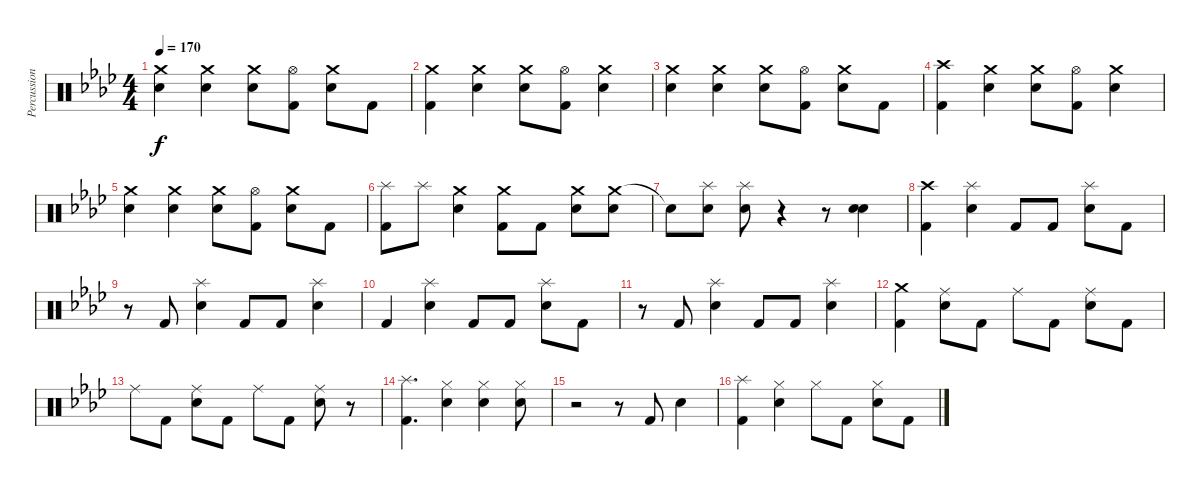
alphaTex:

\track ("Percussion" "Percussion") {instrument percussion}
\staff {score}
\articulation defaults
\ts (4 4)
\tempo 170
\clef neutral
\ks ab
("Crash medium (hit)" "Electric Snare (hit)").4{dy f} ("Crash medium (hit)" "Electric Snare (hit)").4 ("Crash medium (hit)" "Electric Snare (hit)").8 ("Hi-Hat (open)" "Kick (hit) 2").8 ("Crash medium (hit)" "Electric Snare (hit)").8 "Kick (hit) 2".8 |
("Crash medium (hit)" "Kick (hit) 2").4 ("Crash medium (hit)" "Electric Snare (hit)").4 ("Crash medium (hit)" "Electric Snare (hit)").8 ("Hi-Hat (open)" "Kick (hit) 2").8 ("Crash medium (hit)" "Electric Snare (hit)").4 |
("Crash medium (hit)" "Electric Snare (hit)").4 ("Crash medium (hit)" "Electric Snare (hit)").4 ("Crash medium (hit)" "Electric Snare (hit)").8 ("Hi-Hat (open)" "Kick (hit) 2").8 ("Crash medium (hit)" "Electric Snare (hit)").8 "Kick (hit) 2".8 |
("Crash high (hit)" "Kick (hit) 2").4 ("Crash medium (hit)" "Electric Snare (hit)").4 ("Crash medium (hit)" "Electric Snare (hit)").8 ("Hi-Hat (open)" "Kick (hit) 2").8 ("Crash medium (hit)" "Electric Snare (hit)").4 |
("Crash medium (hit)" "Electric Snare (hit)").4 ("Crash medium (hit)" "Electric Snare (hit)").4 ("Crash medium (hit)" "Electric Snare (hit)").8 ("Hi-Hat (open)" "Kick (hit) 2").8 ("Crash medium (hit)" "Electric Snare (hit)").8 "Kick (hit) 2".8 |
("Splash (hit)" "Kick (hit) 2").8 "Splash (hit)".8 ("Crash medium (hit)" "Electric Snare (hit)").4 ("Crash medium (hit)" "Kick (hit) 2").8 "Kick (hit) 2".8 ("Crash medium (hit)" "Electric Snare (hit)").8 ("Crash medium (hit)" "Electric Snare (hit)").8 |
"Snare (hit)"{t}.8 ("Splash (hit)" "Electric Snare (hit)").8 ("Splash (hit)" "Electric Snare (hit)").8 r.4 r.8 ("Electric Snare (hit)" "Electric Snare (hit)").4 |
("Crash high (hit)" "Kick (hit) 2").4 ("Splash (hit)" "Electric Snare (hit)").4 "Kick (hit) 2".8 "Kick (hit) 2".8 ("Splash (hit)" "Electric Snare (hit)").8 "Kick (hit) 2".8 |
r.8 "Kick (hit) 2".8 ("Splash (hit)" "Electric Snare (hit)").4 "Kick (hit) 2".8 "Kick (hit) 2".8 ("Splash (hit)" "Electric Snare (hit)").4 |
"Kick (hit) 2".4 ("Splash (hit)" "Electric Snare (hit)").4 "Kick (hit) 2".8 "Kick (hit) 2".8 ("Splash (hit)" "Electric Snare (hit)").8 "Kick (hit) 2".8 |
r.8 "Kick (hit) 2".8 ("Splash (hit)" "Electric Snare (hit)").4 "Kick (hit) 2".8 "Kick (hit) 2".8 ("Splash (hit)" "Electric Snare (hit)").4 |
("Crash medium (hit)" "Kick (hit) 2").4 ("Ride (middle)" "Electric Snare (hit)").8 "Kick (hit) 2".8 "Ride (middle)".8 "Kick (hit) 2".8 ("Ride (middle)" "Electric Snare (hit)").8 "Kick (hit) 2".8 |
"Ride (middle)".8 "Kick (hit) 2".8 ("Ride (middle)" "Electric Snare (hit)").8 "Kick (hit) 2".8 "Ride (middle)".8 "Kick (hit) 2".8 ("Ride (middle)" "Electric Snare (hit)").8 r.8 |
("Splash (hit)" "Kick (hit) 2").4{d} ("Hi-Hat (closed)" "Electric Snare (hit)").4 ("Hi-Hat (closed)" "Electric Snare (hit)").4 ("Hi-Hat (closed)" "Electric Snare (hit)").8 |
r.2 r.8 "Kick (hit) 2".8 "Electric Snare (hit)".4 |
("Splash (hit)" "Kick (hit) 2").4 ("Hi-Hat (closed)" "Electric Snare (hit)").4 "Hi-Hat (closed)".8 "Kick (hit) 2".8 ("Hi-Hat (closed)" "Electric Snare (hit)").8 "Kick (hit) 2".8
